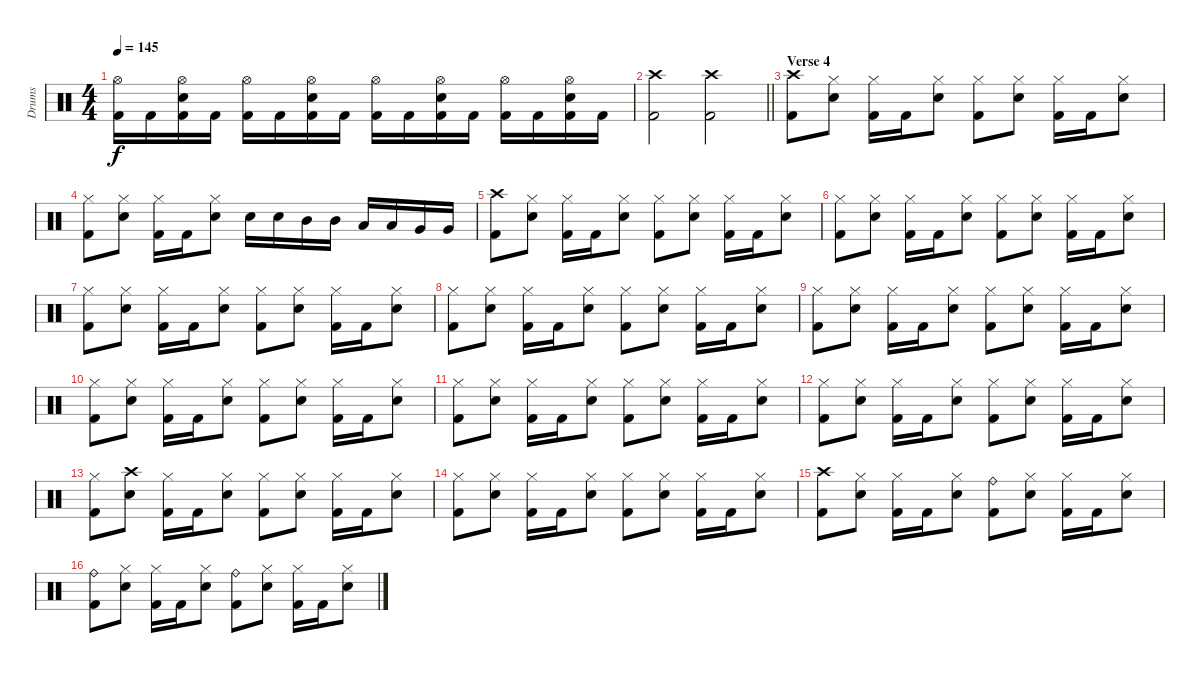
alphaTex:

\track ("Drums" "Drums") {instrument percussion}
\staff {score}
\articulation defaults
\ts (4 4)
\tempo 145
\clef neutral
\ks c
("Hi-Hat (open)" "Kick (hit) 2").16{dy f} "Kick (hit) 2".16 ("Hi-Hat (open)" "Kick (hit) 2" "Snare (hit) 2").16 "Kick (hit) 2".16 ("Hi-Hat (open)" "Kick (hit) 2").16 "Kick (hit) 2".16 ("Hi-Hat (open)" "Kick (hit) 2" "Snare (hit) 2").16 "Kick (hit) 2".16 ("Hi-Hat (open)" "Kick (hit) 2").16 "Kick (hit) 2".16 ("Hi-Hat (open)" "Kick (hit) 2" "Snare (hit) 2").16 "Kick (hit) 2".16 ("Hi-Hat (open)" "Kick (hit) 2").16 "Kick (hit) 2".16 ("Hi-Hat (open)" "Kick (hit) 2" "Snare (hit) 2").16 "Kick (hit) 2".16 |
\barLineRight lightlight
("Crash high (hit)" "Kick (hit) 2").2 ("Crash high (hit)" "Kick (hit) 2").2 |
\section ("" "Verse 4")
("Crash high (hit)" "Kick (hit) 2").8 ("Hi-Hat (closed)" "Snare (hit) 2").8 ("Hi-Hat (closed)" "Kick (hit) 2").16 "Kick (hit) 2".16 ("Hi-Hat (closed)" "Snare (hit) 2").8 ("Hi-Hat (closed)" "Kick (hit) 2").8 ("Hi-Hat (closed)" "Snare (hit) 2").8 ("Hi-Hat (closed)" "Kick (hit) 2").16 "Kick (hit) 2".16 ("Hi-Hat (closed)" "Snare (hit) 2").8 |
("Hi-Hat (closed)" "Kick (hit) 2").8 ("Hi-Hat (closed)" "Snare (hit) 2").8 ("Hi-Hat (closed)" "Kick (hit) 2").16 "Kick (hit) 2".16 ("Hi-Hat (closed)" "Snare (hit) 2").8 "Snare (hit) 2".16 "Snare (hit) 2".16 "Mid Tom (hit)".16 "Mid Tom (hit)".16 "Low Tom (hit)".16 "Low Tom (hit)".16 "Very Low Tom (hit)".16 "Very Low Tom (hit)".16 |
("Crash high (hit)" "Kick (hit) 2").8 ("Hi-Hat (closed)" "Snare (hit) 2").8 ("Hi-Hat (closed)" "Kick (hit) 2").16 "Kick (hit) 2".16 ("Hi-Hat (closed)" "Snare (hit) 2").8 ("Hi-Hat (closed)" "Kick (hit) 2").8 ("Hi-Hat (closed)" "Snare (hit) 2").8 ("Hi-Hat (closed)" "Kick (hit) 2").16 "Kick (hit) 2".16 ("Hi-Hat (closed)" "Snare (hit) 2").8 |
("Hi-Hat (closed)" "Kick (hit) 2").8 ("Hi-Hat (closed)" "Snare (hit) 2").8 ("Hi-Hat (closed)" "Kick (hit) 2").16 "Kick (hit) 2".16 ("Hi-Hat (closed)" "Snare (hit) 2").8 ("Hi-Hat (closed)" "Kick (hit) 2").8 ("Hi-Hat (closed)" "Snare (hit) 2").8 ("Hi-Hat (closed)" "Kick (hit) 2").16 "Kick (hit) 2".16 ("Hi-Hat (closed)" "Snare (hit) 2").8 |
("Hi-Hat (closed)" "Kick (hit) 2").8 ("Hi-Hat (closed)" "Snare (hit) 2").8 ("Hi-Hat (closed)" "Kick (hit) 2").16 "Kick (hit) 2".16 ("Hi-Hat (closed)" "Snare (hit) 2").8 ("Hi-Hat (closed)" "Kick (hit) 2").8 ("Hi-Hat (closed)" "Snare (hit) 2").8 ("Hi-Hat (closed)" "Kick (hit) 2").16 "Kick (hit) 2".16 ("Hi-Hat (closed)" "Snare (hit) 2").8 |
("Hi-Hat (closed)" "Kick (hit) 2").8 ("Hi-Hat (closed)" "Snare (hit) 2").8 ("Hi-Hat (closed)" "Kick (hit) 2").16 "Kick (hit) 2".16 ("Hi-Hat (closed)" "Snare (hit) 2").8 ("Hi-Hat (closed)" "Kick (hit) 2").8 ("Hi-Hat (closed)" "Snare (hit) 2").8 ("Hi-Hat (closed)" "Kick (hit) 2").16 "Kick (hit) 2".16 ("Hi-Hat (closed)" "Snare (hit) 2").8 |
("Hi-Hat (closed)" "Kick (hit) 2").8 ("Hi-Hat (closed)" "Snare (hit) 2").8 ("Hi-Hat (closed)" "Kick (hit) 2").16 "Kick (hit) 2".16 ("Hi-Hat (closed)" "Snare (hit) 2").8 ("Hi-Hat (closed)" "Kick (hit) 2").8 ("Hi-Hat (closed)" "Snare (hit) 2").8 ("Hi-Hat (closed)" "Kick (hit) 2").16 "Kick (hit) 2".16 ("Hi-Hat (closed)" "Snare (hit) 2").8 |
("Hi-Hat (closed)" "Kick (hit) 2").8 ("Hi-Hat (closed)" "Snare (hit) 2").8 ("Hi-Hat (closed)" "Kick (hit) 2").16 "Kick (hit) 2".16 ("Hi-Hat (closed)" "Snare (hit) 2").8 ("Hi-Hat (closed)" "Kick (hit) 2").8 ("Hi-Hat (closed)" "Snare (hit) 2").8 ("Hi-Hat (closed)" "Kick (hit) 2").16 "Kick (hit) 2".16 ("Hi-Hat (closed)" "Snare (hit) 2").8 |
("Hi-Hat (closed)" "Kick (hit) 2").8 ("Hi-Hat (closed)" "Snare (hit) 2").8 ("Hi-Hat (closed)" "Kick (hit) 2").16 "Kick (hit) 2".16 ("Hi-Hat (closed)" "Snare (hit) 2").8 ("Hi-Hat (closed)" "Kick (hit) 2").8 ("Hi-Hat (closed)" "Snare (hit) 2").8 ("Hi-Hat (closed)" "Kick (hit) 2").16 "Kick (hit) 2".16 ("Hi-Hat (closed)" "Snare (hit) 2").8 |
("Hi-Hat (closed)" "Kick (hit) 2").8 ("Hi-Hat (closed)" "Snare (hit) 2").8 ("Hi-Hat (closed)" "Kick (hit) 2").16 "Kick (hit) 2".16 ("Hi-Hat (closed)" "Snare (hit) 2").8 ("Hi-Hat (closed)" "Kick (hit) 2").8 ("Hi-Hat (closed)" "Snare (hit) 2").8 ("Hi-Hat (closed)" "Kick (hit) 2").16 "Kick (hit) 2".16 ("Hi-Hat (closed)" "Snare (hit) 2").8 |
("Hi-Hat (closed)" "Kick (hit) 2").8 ("Crash high (hit)" "Snare (hit) 2").8 ("Hi-Hat (closed)" "Kick (hit) 2").16 "Kick (hit) 2".16 ("Hi-Hat (closed)" "Snare (hit) 2").8 ("Hi-Hat (closed)" "Kick (hit) 2").8 ("Hi-Hat (closed)" "Snare (hit) 2").8 ("Hi-Hat (closed)" "Kick (hit) 2").16 "Kick (hit) 2".16 ("Hi-Hat (closed)" "Snare (hit) 2").8 |
("Hi-Hat (closed)" "Kick (hit) 2").8 ("Hi-Hat (closed)" "Snare (hit) 2").8 ("Hi-Hat (closed)" "Kick (hit) 2").16 "Kick (hit) 2".16 ("Hi-Hat (closed)" "Snare (hit) 2").8 ("Hi-Hat (closed)" "Kick (hit) 2").8 ("Hi-Hat (closed)" "Snare (hit) 2").8 ("Hi-Hat (closed)" "Kick (hit) 2").16 "Kick (hit) 2".16 ("Hi-Hat (closed)" "Snare (hit) 2").8 |
("Crash high (hit)" "Kick (hit) 2").8 ("Hi-Hat (closed)" "Snare (hit) 2").8 ("Hi-Hat (closed)" "Kick (hit) 2").16 "Kick (hit) 2".16 ("Hi-Hat (closed)" "Snare (hit) 2").8 ("Ride (bell)" "Kick (hit) 2").8 ("Hi-Hat (closed)" "Snare (hit) 2").8 ("Hi-Hat (closed)" "Kick (hit) 2").16 "Kick (hit) 2".16 ("Hi-Hat (closed)" "Snare (hit) 2").8 |
("Ride (bell)" "Kick (hit) 2").8 ("Hi-Hat (closed)" "Snare (hit) 2").8 ("Hi-Hat (closed)" "Kick (hit) 2").16 "Kick (hit) 2".16 ("Hi-Hat (closed)" "Snare (hit) 2").8 ("Ride (bell)" "Kick (hit) 2").8 ("Hi-Hat (closed)" "Snare (hit) 2").8 ("Hi-Hat (closed)" "Kick (hit) 2").16 "Kick (hit) 2".16 ("Hi-Hat (closed)" "Snare (hit) 2").8
